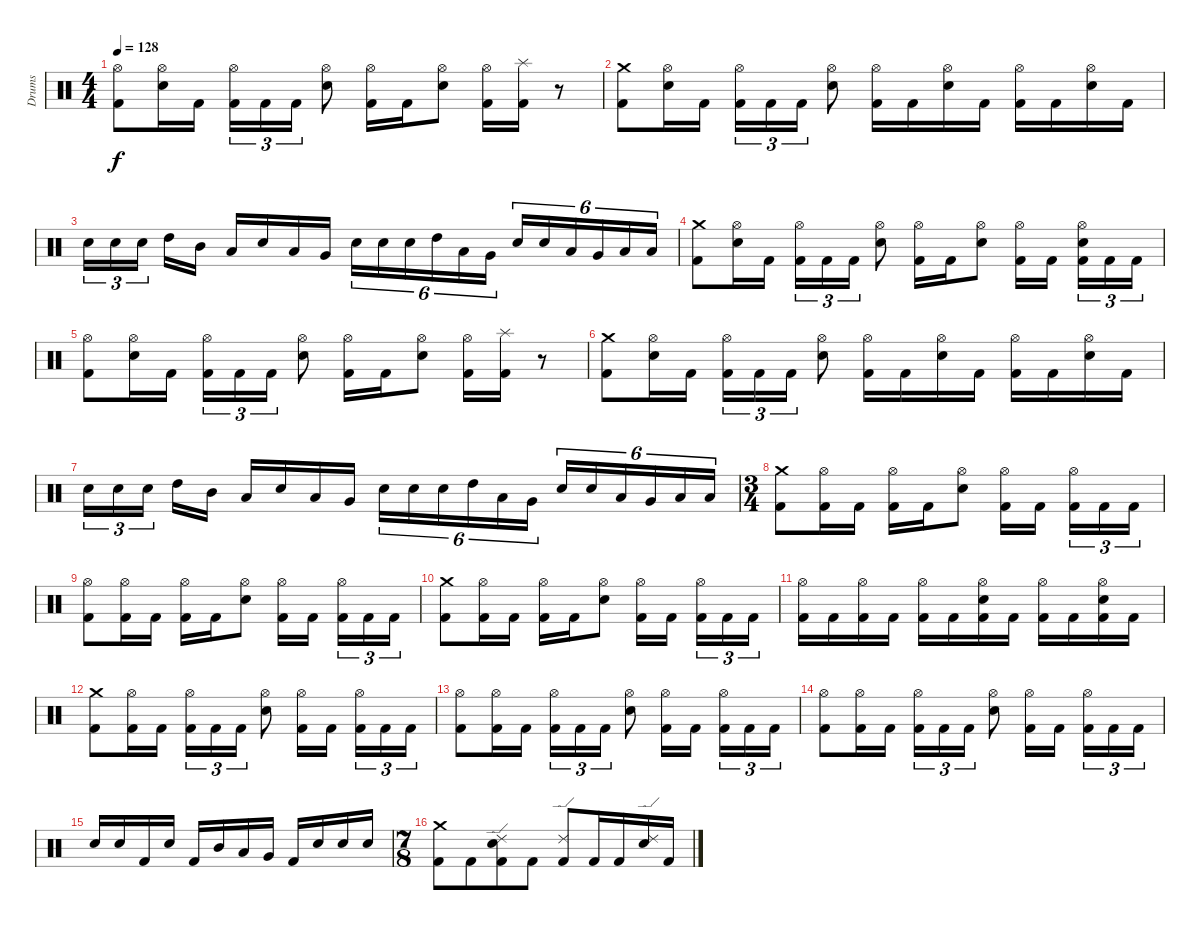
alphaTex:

\track ("Drums" "Drums") {instrument percussion}
\staff {score}
\articulation defaults
\ts (4 4)
\tempo 128
\clef neutral
\ks c
("Hi-Hat (open)" "Kick (hit) 2").8{dy f} ("Electric Snare (hit)" "Hi-Hat (open)").16 "Kick (hit) 2".16 ("Kick (hit) 2" "Hi-Hat (open)").16{tu (3 2)} "Kick (hit) 2".16{tu (3 2)} "Kick (hit) 2".16{tu (3 2)} ("Electric Snare (hit)" "Hi-Hat (open)").8 ("Kick (hit) 2" "Hi-Hat (open)").16 "Kick (hit) 2".16 ("Electric Snare (hit)" "Hi-Hat (open)").8 ("Kick (hit) 2" "Hi-Hat (open)").16 ("Splash (hit)" "Kick (hit) 2").16 r.8 |
("Kick (hit) 2" "Crash medium (hit)").8 ("Electric Snare (hit)" "Hi-Hat (open)").16 "Kick (hit) 2".16 ("Kick (hit) 2" "Hi-Hat (open)").16{tu (3 2)} "Kick (hit) 2".16{tu (3 2)} "Kick (hit) 2".16{tu (3 2)} ("Electric Snare (hit)" "Hi-Hat (open)").8 ("Kick (hit) 2" "Hi-Hat (open)").16 "Kick (hit) 2".16 ("Electric Snare (hit)" "Hi-Hat (open)").16 "Kick (hit) 2".16 ("Kick (hit) 2" "Hi-Hat (open)").16 "Kick (hit) 2".16 ("Electric Snare (hit)" "Hi-Hat (open)").16 "Kick (hit) 2".16 |
"Electric Snare (hit)".16{tu (3 2)} "Electric Snare (hit)".16{tu (3 2)} "Electric Snare (hit)".16{tu (3 2)} "High Tom (hit)".16 "Mid Tom (hit)".16 "Low Tom (hit)".16 "Electric Snare (hit)".16 "Low Tom (hit)".16 "Very Low Tom (hit)".16 "Electric Snare (hit)".16{tu (6 4)} "Electric Snare (hit)".16{tu (6 4)} "Electric Snare (hit)".16{tu (6 4)} "High Tom (hit)".16{tu (6 4)} "Low Tom (hit)".16{tu (6 4)} "Very Low Tom (hit)".16{tu (6 4)} "Electric Snare (hit)".16{tu (6 4)} "Electric Snare (hit)".16{tu (6 4)} "Low Tom (hit)".16{tu (6 4)} "Very Low Tom (hit)".16{tu (6 4)} "Low Floor Tom (hit)".16{tu (6 4)} "Low Floor Tom (hit)".16{tu (6 4)} |
("Kick (hit) 2" "Crash medium (hit)").8 ("Electric Snare (hit)" "Hi-Hat (open)").16 "Kick (hit) 2".16 ("Kick (hit) 2" "Hi-Hat (open)").16{tu (3 2)} "Kick (hit) 2".16{tu (3 2)} "Kick (hit) 2".16{tu (3 2)} ("Electric Snare (hit)" "Hi-Hat (open)").8 ("Kick (hit) 2" "Hi-Hat (open)").16 "Kick (hit) 2".16 ("Electric Snare (hit)" "Hi-Hat (open)").8 ("Kick (hit) 2" "Hi-Hat (open)").16 "Kick (hit) 2".16 ("Kick (hit) 2" "Electric Snare (hit)" "Hi-Hat (open)").16{tu (3 2)} "Kick (hit) 2".16{tu (3 2)} "Kick (hit) 2".16{tu (3 2)} |
("Hi-Hat (open)" "Kick (hit) 2").8 ("Electric Snare (hit)" "Hi-Hat (open)").16 "Kick (hit) 2".16 ("Kick (hit) 2" "Hi-Hat (open)").16{tu (3 2)} "Kick (hit) 2".16{tu (3 2)} "Kick (hit) 2".16{tu (3 2)} ("Electric Snare (hit)" "Hi-Hat (open)").8 ("Kick (hit) 2" "Hi-Hat (open)").16 "Kick (hit) 2".16 ("Electric Snare (hit)" "Hi-Hat (open)").8 ("Kick (hit) 2" "Hi-Hat (open)").16 ("Splash (hit)" "Kick (hit) 2").16 r.8 |
("Kick (hit) 2" "Crash medium (hit)").8 ("Electric Snare (hit)" "Hi-Hat (open)").16 "Kick (hit) 2".16 ("Kick (hit) 2" "Hi-Hat (open)").16{tu (3 2)} "Kick (hit) 2".16{tu (3 2)} "Kick (hit) 2".16{tu (3 2)} ("Electric Snare (hit)" "Hi-Hat (open)").8 ("Kick (hit) 2" "Hi-Hat (open)").16 "Kick (hit) 2".16 ("Electric Snare (hit)" "Hi-Hat (open)").16 "Kick (hit) 2".16 ("Kick (hit) 2" "Hi-Hat (open)").16 "Kick (hit) 2".16 ("Electric Snare (hit)" "Hi-Hat (open)").16 "Kick (hit) 2".16 |
"Electric Snare (hit)".16{tu (3 2)} "Electric Snare (hit)".16{tu (3 2)} "Electric Snare (hit)".16{tu (3 2)} "High Tom (hit)".16 "Mid Tom (hit)".16 "Low Tom (hit)".16 "Electric Snare (hit)".16 "Low Tom (hit)".16 "Very Low Tom (hit)".16 "Electric Snare (hit)".16{tu (6 4)} "Electric Snare (hit)".16{tu (6 4)} "Electric Snare (hit)".16{tu (6 4)} "High Tom (hit)".16{tu (6 4)} "Low Tom (hit)".16{tu (6 4)} "Very Low Tom (hit)".16{tu (6 4)} "Electric Snare (hit)".16{tu (6 4)} "Electric Snare (hit)".16{tu (6 4)} "Low Tom (hit)".16{tu (6 4)} "Very Low Tom (hit)".16{tu (6 4)} "Low Floor Tom (hit)".16{tu (6 4)} "Low Floor Tom (hit)".16{tu (6 4)} |
\ts (3 4)
("Kick (hit) 2" "Crash medium (hit)").8 ("Kick (hit) 2" "Hi-Hat (open)").16 "Kick (hit) 2".16 ("Kick (hit) 2" "Hi-Hat (open)").16 "Kick (hit) 2".16 ("Electric Snare (hit)" "Hi-Hat (open)").8 ("Kick (hit) 2" "Hi-Hat (open)").16 "Kick (hit) 2".16 ("Kick (hit) 2" "Hi-Hat (open)").16{tu (3 2)} "Kick (hit) 2".16{tu (3 2)} "Kick (hit) 2".16{tu (3 2)} |
("Hi-Hat (open)" "Kick (hit) 2").8 ("Kick (hit) 2" "Hi-Hat (open)").16 "Kick (hit) 2".16 ("Kick (hit) 2" "Hi-Hat (open)").16 "Kick (hit) 2".16 ("Electric Snare (hit)" "Hi-Hat (open)").8 ("Kick (hit) 2" "Hi-Hat (open)").16 "Kick (hit) 2".16 ("Kick (hit) 2" "Hi-Hat (open)").16{tu (3 2)} "Kick (hit) 2".16{tu (3 2)} "Kick (hit) 2".16{tu (3 2)} |
("Kick (hit) 2" "Crash medium (hit)").8 ("Kick (hit) 2" "Hi-Hat (open)").16 "Kick (hit) 2".16 ("Kick (hit) 2" "Hi-Hat (open)").16 "Kick (hit) 2".16 ("Electric Snare (hit)" "Hi-Hat (open)").8 ("Kick (hit) 2" "Hi-Hat (open)").16 "Kick (hit) 2".16 ("Kick (hit) 2" "Hi-Hat (open)").16{tu (3 2)} "Kick (hit) 2".16{tu (3 2)} "Kick (hit) 2".16{tu (3 2)} |
("Hi-Hat (open)" "Kick (hit) 2").16 "Kick (hit) 2".16 ("Hi-Hat (open)" "Kick (hit) 2").16 "Kick (hit) 2".16 ("Hi-Hat (open)" "Kick (hit) 2").16 "Kick (hit) 2".16 ("Electric Snare (hit)" "Hi-Hat (open)" "Kick (hit) 2").16 "Kick (hit) 2".16 ("Hi-Hat (open)" "Kick (hit) 2").16 "Kick (hit) 2".16 ("Hi-Hat (open)" "Electric Snare (hit)" "Kick (hit) 2").16 "Kick (hit) 2".16 |
("Kick (hit) 2" "Crash medium (hit)").8 ("Kick (hit) 2" "Hi-Hat (open)").16 "Kick (hit) 2".16 ("Kick (hit) 2" "Hi-Hat (open)").16{tu (3 2)} "Kick (hit) 2".16{tu (3 2)} "Kick (hit) 2".16{tu (3 2)} ("Electric Snare (hit)" "Hi-Hat (open)").8 ("Kick (hit) 2" "Hi-Hat (open)").16 "Kick (hit) 2".16 ("Kick (hit) 2" "Hi-Hat (open)").16{tu (3 2)} "Kick (hit) 2".16{tu (3 2)} "Kick (hit) 2".16{tu (3 2)} |
("Hi-Hat (open)" "Kick (hit) 2").8 ("Kick (hit) 2" "Hi-Hat (open)").16 "Kick (hit) 2".16 ("Kick (hit) 2" "Hi-Hat (open)").16{tu (3 2)} "Kick (hit) 2".16{tu (3 2)} "Kick (hit) 2".16{tu (3 2)} ("Electric Snare (hit)" "Hi-Hat (open)").8 ("Kick (hit) 2" "Hi-Hat (open)").16 "Kick (hit) 2".16 ("Kick (hit) 2" "Hi-Hat (open)").16{tu (3 2)} "Kick (hit) 2".16{tu (3 2)} "Kick (hit) 2".16{tu (3 2)} |
("Hi-Hat (open)" "Kick (hit) 2").8 ("Kick (hit) 2" "Hi-Hat (open)").16 "Kick (hit) 2".16 ("Kick (hit) 2" "Hi-Hat (open)").16{tu (3 2)} "Kick (hit) 2".16{tu (3 2)} "Kick (hit) 2".16{tu (3 2)} ("Electric Snare (hit)" "Hi-Hat (open)").8 ("Kick (hit) 2" "Hi-Hat (open)").16 "Kick (hit) 2".16 ("Kick (hit) 2" "Hi-Hat (open)").16{tu (3 2)} "Kick (hit) 2".16{tu (3 2)} "Kick (hit) 2".16{tu (3 2)} |
"Electric Snare (hit)".16 "Electric Snare (hit)".16 "Kick (hit) 2".16 "Electric Snare (hit)".16 "Kick (hit) 2".16 "Mid Tom (hit)".16 "Low Tom (hit)".16 "Very Low Tom (hit)".16 "Kick (hit) 2".16 "Electric Snare (hit)".16 "Electric Snare (hit)".16 "Electric Snare (hit)".16 |
\ts (7 8)
("Kick (hit) 2" "Crash medium (hit)").8 "Kick (hit) 2".8 ("Electric Snare (hit)" "Kick (hit) 2" "Ride (edge) 2").8 "Kick (hit) 2".8 ("Kick (hit) 2" "Ride (edge) 2").8 "Kick (hit) 2".16 "Kick (hit) 2".16 ("Electric Snare (hit)" "Ride (edge) 2").16 "Kick (hit) 2".16
